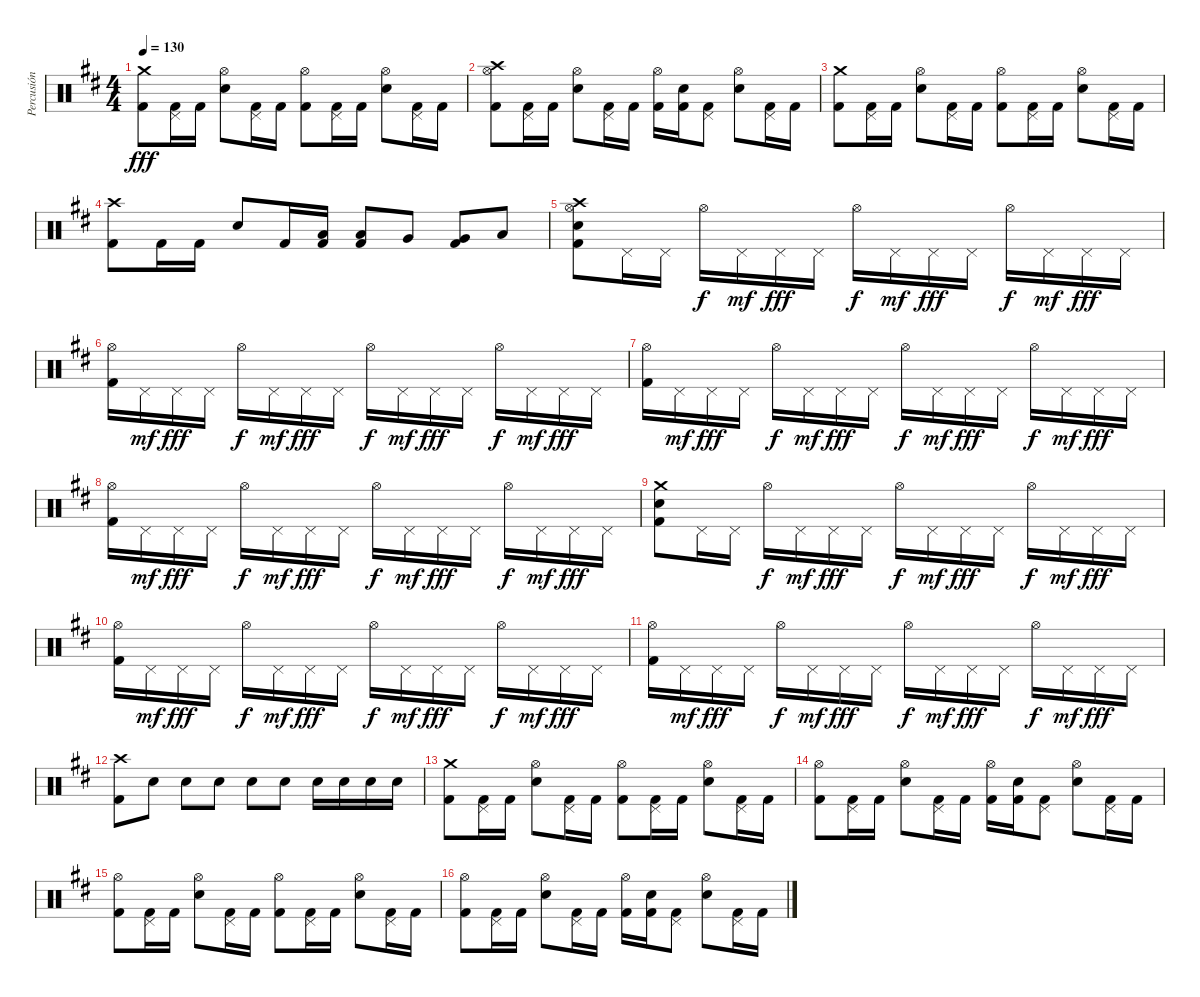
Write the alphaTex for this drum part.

\track ("Percusión" "Percusión") {instrument percussion}
\staff {score}
\articulation defaults
\ts (4 4)
\tempo 130
\clef neutral
\ks d
("Crash medium (hit)" "Kick (hit) 2").8{dy fff} ("Pedal Hi-Hat (hit)" "Kick (hit) 2").16 "Kick (hit) 2".16 ("Hi-Hat (open)" "Electric Snare (hit)").8 ("Pedal Hi-Hat (hit)" "Kick (hit) 2").16 "Kick (hit) 2".16 ("Hi-Hat (open)" "Kick (hit) 2").8 ("Pedal Hi-Hat (hit)" "Kick (hit) 2").16 "Kick (hit) 2".16 ("Hi-Hat (open)" "Electric Snare (hit)").8 ("Pedal Hi-Hat (hit)" "Kick (hit) 2").16 "Kick (hit) 2".16 |
("Crash high (hit)" "Hi-Hat (open)" "Kick (hit) 2").8 ("Pedal Hi-Hat (hit)" "Kick (hit) 2").16 "Kick (hit) 2".16 ("Hi-Hat (open)" "Electric Snare (hit)").8 ("Pedal Hi-Hat (hit)" "Kick (hit) 2").16 "Kick (hit) 2".16 ("Hi-Hat (open)" "Kick (hit) 2").16 ("Electric Snare (hit)" "Kick (hit) 2").16 ("Pedal Hi-Hat (hit)" "Kick (hit) 2").8 ("Hi-Hat (open)" "Electric Snare (hit)").8 ("Pedal Hi-Hat (hit)" "Kick (hit) 2").16 "Kick (hit) 2".16 |
("Crash medium (hit)" "Kick (hit) 2").8 ("Pedal Hi-Hat (hit)" "Kick (hit) 2").16 "Kick (hit) 2".16 ("Hi-Hat (open)" "Electric Snare (hit)").8 ("Pedal Hi-Hat (hit)" "Kick (hit) 2").16 "Kick (hit) 2".16 ("Hi-Hat (open)" "Kick (hit) 2").8 ("Pedal Hi-Hat (hit)" "Kick (hit) 2").16 "Kick (hit) 2".16 ("Hi-Hat (open)" "Electric Snare (hit)").8 ("Pedal Hi-Hat (hit)" "Kick (hit) 2").16 "Kick (hit) 2".16 |
("Crash high (hit)" "Kick (hit) 2").8 "Kick (hit) 2".16 "Kick (hit) 2".16 "Electric Snare (hit)".8 "Kick (hit) 2".16 ("Low Tom (hit)" "Kick (hit) 2").16 ("Low Tom (hit)" "Kick (hit) 2").8 "Very Low Tom (hit)".8 ("Very Low Tom (hit)" "Kick (hit) 2").8 "Low Floor Tom (hit)".8 |
("Crash high (hit)" "Hi-Hat (open)" "Electric Snare (hit)" "Kick (hit) 2").8 "Pedal Hi-Hat (hit)".16 "Pedal Hi-Hat (hit)".16 "Hi-Hat (open)".16{dy f} "Pedal Hi-Hat (hit)".16{dy mf} "Pedal Hi-Hat (hit)".16{dy fff} "Pedal Hi-Hat (hit)".16 "Hi-Hat (open)".16{dy f} "Pedal Hi-Hat (hit)".16{dy mf} "Pedal Hi-Hat (hit)".16{dy fff} "Pedal Hi-Hat (hit)".16 "Hi-Hat (open)".16{dy f} "Pedal Hi-Hat (hit)".16{dy mf} "Pedal Hi-Hat (hit)".16{dy fff} "Pedal Hi-Hat (hit)".16 |
("Hi-Hat (open)" "Kick (hit) 2").16 "Pedal Hi-Hat (hit)".16{dy mf} "Pedal Hi-Hat (hit)".16{dy fff} "Pedal Hi-Hat (hit)".16 "Hi-Hat (open)".16{dy f} "Pedal Hi-Hat (hit)".16{dy mf} "Pedal Hi-Hat (hit)".16{dy fff} "Pedal Hi-Hat (hit)".16 "Hi-Hat (open)".16{dy f} "Pedal Hi-Hat (hit)".16{dy mf} "Pedal Hi-Hat (hit)".16{dy fff} "Pedal Hi-Hat (hit)".16 "Hi-Hat (open)".16{dy f} "Pedal Hi-Hat (hit)".16{dy mf} "Pedal Hi-Hat (hit)".16{dy fff} "Pedal Hi-Hat (hit)".16 |
("Hi-Hat (open)" "Kick (hit) 2").16 "Pedal Hi-Hat (hit)".16{dy mf} "Pedal Hi-Hat (hit)".16{dy fff} "Pedal Hi-Hat (hit)".16 "Hi-Hat (open)".16{dy f} "Pedal Hi-Hat (hit)".16{dy mf} "Pedal Hi-Hat (hit)".16{dy fff} "Pedal Hi-Hat (hit)".16 "Hi-Hat (open)".16{dy f} "Pedal Hi-Hat (hit)".16{dy mf} "Pedal Hi-Hat (hit)".16{dy fff} "Pedal Hi-Hat (hit)".16 "Hi-Hat (open)".16{dy f} "Pedal Hi-Hat (hit)".16{dy mf} "Pedal Hi-Hat (hit)".16{dy fff} "Pedal Hi-Hat (hit)".16 |
("Hi-Hat (open)" "Kick (hit) 2").16 "Pedal Hi-Hat (hit)".16{dy mf} "Pedal Hi-Hat (hit)".16{dy fff} "Pedal Hi-Hat (hit)".16 "Hi-Hat (open)".16{dy f} "Pedal Hi-Hat (hit)".16{dy mf} "Pedal Hi-Hat (hit)".16{dy fff} "Pedal Hi-Hat (hit)".16 "Hi-Hat (open)".16{dy f} "Pedal Hi-Hat (hit)".16{dy mf} "Pedal Hi-Hat (hit)".16{dy fff} "Pedal Hi-Hat (hit)".16 "Hi-Hat (open)".16{dy f} "Pedal Hi-Hat (hit)".16{dy mf} "Pedal Hi-Hat (hit)".16{dy fff} "Pedal Hi-Hat (hit)".16 |
("Crash medium (hit)" "Electric Snare (hit)" "Kick (hit) 2").8 "Pedal Hi-Hat (hit)".16 "Pedal Hi-Hat (hit)".16 "Hi-Hat (open)".16{dy f} "Pedal Hi-Hat (hit)".16{dy mf} "Pedal Hi-Hat (hit)".16{dy fff} "Pedal Hi-Hat (hit)".16 "Hi-Hat (open)".16{dy f} "Pedal Hi-Hat (hit)".16{dy mf} "Pedal Hi-Hat (hit)".16{dy fff} "Pedal Hi-Hat (hit)".16 "Hi-Hat (open)".16{dy f} "Pedal Hi-Hat (hit)".16{dy mf} "Pedal Hi-Hat (hit)".16{dy fff} "Pedal Hi-Hat (hit)".16 |
("Hi-Hat (open)" "Kick (hit) 2").16 "Pedal Hi-Hat (hit)".16{dy mf} "Pedal Hi-Hat (hit)".16{dy fff} "Pedal Hi-Hat (hit)".16 "Hi-Hat (open)".16{dy f} "Pedal Hi-Hat (hit)".16{dy mf} "Pedal Hi-Hat (hit)".16{dy fff} "Pedal Hi-Hat (hit)".16 "Hi-Hat (open)".16{dy f} "Pedal Hi-Hat (hit)".16{dy mf} "Pedal Hi-Hat (hit)".16{dy fff} "Pedal Hi-Hat (hit)".16 "Hi-Hat (open)".16{dy f} "Pedal Hi-Hat (hit)".16{dy mf} "Pedal Hi-Hat (hit)".16{dy fff} "Pedal Hi-Hat (hit)".16 |
("Hi-Hat (open)" "Kick (hit) 2").16 "Pedal Hi-Hat (hit)".16{dy mf} "Pedal Hi-Hat (hit)".16{dy fff} "Pedal Hi-Hat (hit)".16 "Hi-Hat (open)".16{dy f} "Pedal Hi-Hat (hit)".16{dy mf} "Pedal Hi-Hat (hit)".16{dy fff} "Pedal Hi-Hat (hit)".16 "Hi-Hat (open)".16{dy f} "Pedal Hi-Hat (hit)".16{dy mf} "Pedal Hi-Hat (hit)".16{dy fff} "Pedal Hi-Hat (hit)".16 "Hi-Hat (open)".16{dy f} "Pedal Hi-Hat (hit)".16{dy mf} "Pedal Hi-Hat (hit)".16{dy fff} "Pedal Hi-Hat (hit)".16 |
("Crash high (hit)" "Kick (hit) 2").8 "Electric Snare (hit)".8 "Electric Snare (hit)".8 "Electric Snare (hit)".8 "Electric Snare (hit)".8 "Electric Snare (hit)".8 "Electric Snare (hit)".16 "Electric Snare (hit)".16 "Electric Snare (hit)".16 "Electric Snare (hit)".16 |
("Crash medium (hit)" "Kick (hit) 2").8 ("Pedal Hi-Hat (hit)" "Kick (hit) 2").16 "Kick (hit) 2".16 ("Hi-Hat (open)" "Electric Snare (hit)").8 ("Pedal Hi-Hat (hit)" "Kick (hit) 2").16 "Kick (hit) 2".16 ("Hi-Hat (open)" "Kick (hit) 2").8 ("Pedal Hi-Hat (hit)" "Kick (hit) 2").16 "Kick (hit) 2".16 ("Hi-Hat (open)" "Electric Snare (hit)").8 ("Pedal Hi-Hat (hit)" "Kick (hit) 2").16 "Kick (hit) 2".16 |
("Hi-Hat (open)" "Kick (hit) 2").8 ("Pedal Hi-Hat (hit)" "Kick (hit) 2").16 "Kick (hit) 2".16 ("Hi-Hat (open)" "Electric Snare (hit)").8 ("Pedal Hi-Hat (hit)" "Kick (hit) 2").16 "Kick (hit) 2".16 ("Hi-Hat (open)" "Kick (hit) 2").16 ("Electric Snare (hit)" "Kick (hit) 2").16 ("Pedal Hi-Hat (hit)" "Kick (hit) 2").8 ("Hi-Hat (open)" "Electric Snare (hit)").8 ("Pedal Hi-Hat (hit)" "Kick (hit) 2").16 "Kick (hit) 2".16 |
("Hi-Hat (open)" "Kick (hit) 2").8 ("Pedal Hi-Hat (hit)" "Kick (hit) 2").16 "Kick (hit) 2".16 ("Hi-Hat (open)" "Electric Snare (hit)").8 ("Pedal Hi-Hat (hit)" "Kick (hit) 2").16 "Kick (hit) 2".16 ("Hi-Hat (open)" "Kick (hit) 2").8 ("Pedal Hi-Hat (hit)" "Kick (hit) 2").16 "Kick (hit) 2".16 ("Hi-Hat (open)" "Electric Snare (hit)").8 ("Pedal Hi-Hat (hit)" "Kick (hit) 2").16 "Kick (hit) 2".16 |
("Hi-Hat (open)" "Kick (hit) 2").8 ("Pedal Hi-Hat (hit)" "Kick (hit) 2").16 "Kick (hit) 2".16 ("Hi-Hat (open)" "Electric Snare (hit)").8 ("Pedal Hi-Hat (hit)" "Kick (hit) 2").16 "Kick (hit) 2".16 ("Hi-Hat (open)" "Kick (hit) 2").16 ("Electric Snare (hit)" "Kick (hit) 2").16 ("Pedal Hi-Hat (hit)" "Kick (hit) 2").8 ("Hi-Hat (open)" "Electric Snare (hit)").8 ("Pedal Hi-Hat (hit)" "Kick (hit) 2").16 "Kick (hit) 2".16
